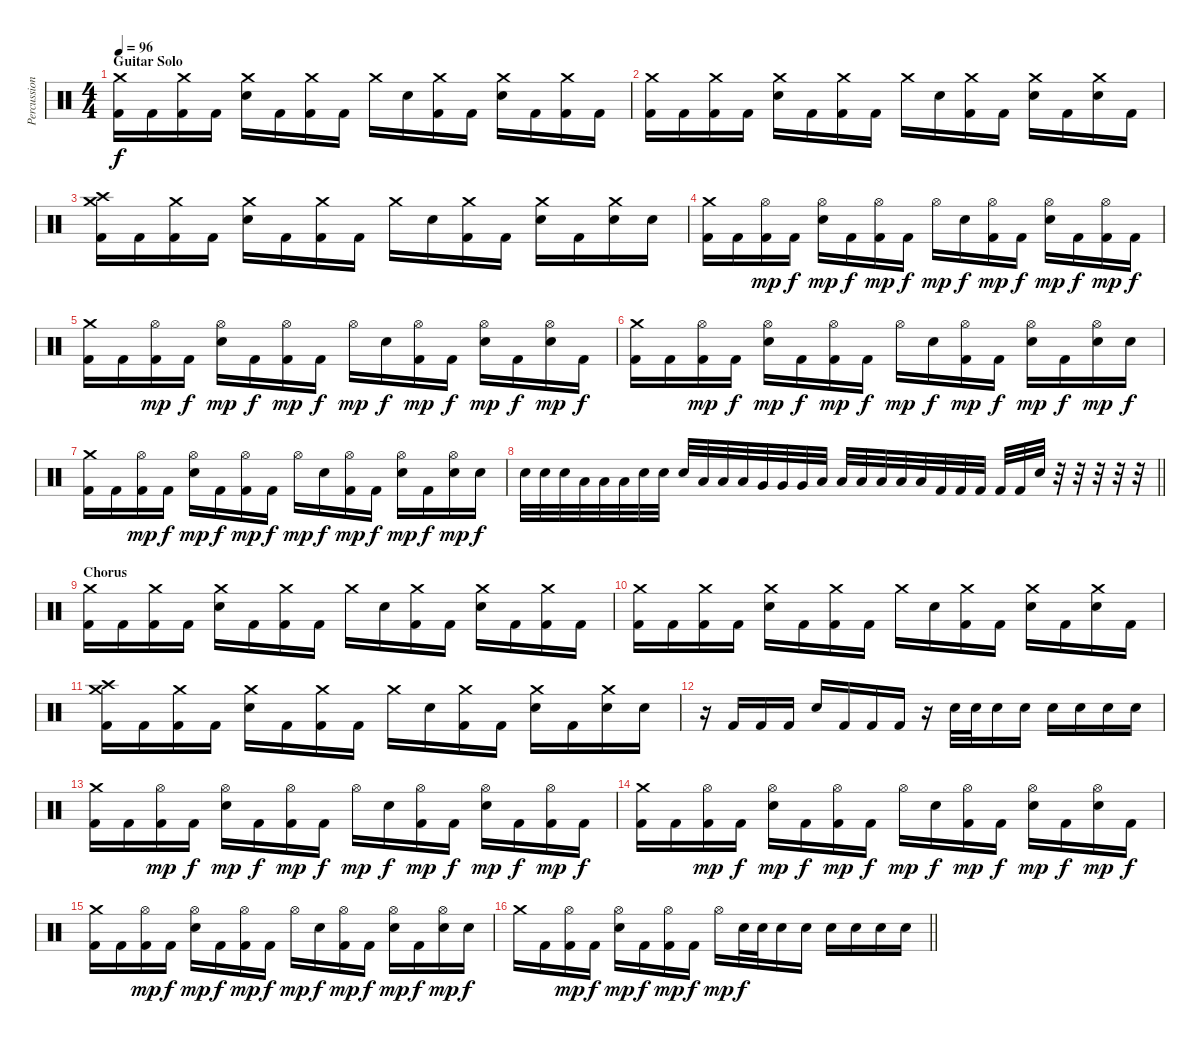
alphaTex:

\track ("Percussion" "Percussion") {instrument percussion}
\staff {score}
\articulation defaults
\ts (4 4)
\section ("" "Guitar Solo")
\tempo 96
\clef neutral
\ks c
("Crash medium (hit)" "Kick (hit) 2").16{dy f} "Kick (hit) 2".16 ("Crash medium (hit)" "Kick (hit) 2").16 "Kick (hit) 2".16 ("Crash medium (hit)" "Electric Snare (hit)").16 "Kick (hit) 2".16 ("Crash medium (hit)" "Kick (hit) 2").16 "Kick (hit) 2".16 "Crash medium (hit)".16 "Electric Snare (hit)".16 ("Crash medium (hit)" "Kick (hit) 2").16 "Kick (hit) 2".16 ("Crash medium (hit)" "Electric Snare (hit)").16 "Kick (hit) 2".16 ("Crash medium (hit)" "Kick (hit) 2").16 "Kick (hit) 2".16 |
("Crash medium (hit)" "Kick (hit) 2").16 "Kick (hit) 2".16 ("Crash medium (hit)" "Kick (hit) 2").16 "Kick (hit) 2".16 ("Crash medium (hit)" "Electric Snare (hit)").16 "Kick (hit) 2".16 ("Crash medium (hit)" "Kick (hit) 2").16 "Kick (hit) 2".16 "Crash medium (hit)".16 "Electric Snare (hit)".16 ("Crash medium (hit)" "Kick (hit) 2").16 "Kick (hit) 2".16 ("Crash medium (hit)" "Electric Snare (hit)").16 "Kick (hit) 2".16 ("Crash medium (hit)" "Electric Snare (hit)").16 "Kick (hit) 2".16 |
("Crash high (hit)" "Crash medium (hit)" "Kick (hit) 2").16 "Kick (hit) 2".16 ("Crash medium (hit)" "Kick (hit) 2").16 "Kick (hit) 2".16 ("Crash medium (hit)" "Electric Snare (hit)").16 "Kick (hit) 2".16 ("Crash medium (hit)" "Kick (hit) 2").16 "Kick (hit) 2".16 "Crash medium (hit)".16 "Electric Snare (hit)".16 ("Crash medium (hit)" "Kick (hit) 2").16 "Kick (hit) 2".16 ("Crash medium (hit)" "Electric Snare (hit)").16 "Kick (hit) 2".16 ("Crash medium (hit)" "Electric Snare (hit)").16 "Electric Snare (hit)".16 |
("Crash medium (hit)" "Kick (hit) 2").16 "Kick (hit) 2".16 ("Hi-Hat (open)" "Kick (hit) 2").16{dy mp} "Kick (hit) 2".16{dy f} ("Hi-Hat (open)" "Electric Snare (hit)").16{dy mp} "Kick (hit) 2".16{dy f} ("Hi-Hat (open)" "Kick (hit) 2").16{dy mp} "Kick (hit) 2".16{dy f} "Hi-Hat (open)".16{dy mp} "Electric Snare (hit)".16{dy f} ("Hi-Hat (open)" "Kick (hit) 2").16{dy mp} "Kick (hit) 2".16{dy f} ("Hi-Hat (open)" "Electric Snare (hit)").16{dy mp} "Kick (hit) 2".16{dy f} ("Hi-Hat (open)" "Kick (hit) 2").16{dy mp} "Kick (hit) 2".16{dy f} |
("Crash medium (hit)" "Kick (hit) 2").16 "Kick (hit) 2".16 ("Hi-Hat (open)" "Kick (hit) 2").16{dy mp} "Kick (hit) 2".16{dy f} ("Hi-Hat (open)" "Electric Snare (hit)").16{dy mp} "Kick (hit) 2".16{dy f} ("Hi-Hat (open)" "Kick (hit) 2").16{dy mp} "Kick (hit) 2".16{dy f} "Hi-Hat (open)".16{dy mp} "Electric Snare (hit)".16{dy f} ("Hi-Hat (open)" "Kick (hit) 2").16{dy mp} "Kick (hit) 2".16{dy f} ("Hi-Hat (open)" "Electric Snare (hit)").16{dy mp} "Kick (hit) 2".16{dy f} ("Hi-Hat (open)" "Electric Snare (hit)").16{dy mp} "Kick (hit) 2".16{dy f} |
("Crash medium (hit)" "Kick (hit) 2").16 "Kick (hit) 2".16 ("Hi-Hat (open)" "Kick (hit) 2").16{dy mp} "Kick (hit) 2".16{dy f} ("Hi-Hat (open)" "Electric Snare (hit)").16{dy mp} "Kick (hit) 2".16{dy f} ("Hi-Hat (open)" "Kick (hit) 2").16{dy mp} "Kick (hit) 2".16{dy f} "Hi-Hat (open)".16{dy mp} "Electric Snare (hit)".16{dy f} ("Hi-Hat (open)" "Kick (hit) 2").16{dy mp} "Kick (hit) 2".16{dy f} ("Hi-Hat (open)" "Electric Snare (hit)").16{dy mp} "Kick (hit) 2".16{dy f} ("Hi-Hat (open)" "Electric Snare (hit)").16{dy mp} "Electric Snare (hit)".16{dy f} |
("Crash medium (hit)" "Kick (hit) 2").16 "Kick (hit) 2".16 ("Hi-Hat (open)" "Kick (hit) 2").16{dy mp} "Kick (hit) 2".16{dy f} ("Hi-Hat (open)" "Electric Snare (hit)").16{dy mp} "Kick (hit) 2".16{dy f} ("Hi-Hat (open)" "Kick (hit) 2").16{dy mp} "Kick (hit) 2".16{dy f} "Hi-Hat (open)".16{dy mp} "Electric Snare (hit)".16{dy f} ("Hi-Hat (open)" "Kick (hit) 2").16{dy mp} "Kick (hit) 2".16{dy f} ("Hi-Hat (open)" "Electric Snare (hit)").16{dy mp} "Kick (hit) 2".16{dy f} ("Hi-Hat (open)" "Electric Snare (hit)").16{dy mp} "Electric Snare (hit)".16{dy f} |
\barLineRight lightlight "Electric Snare (hit)".32 "Electric Snare (hit)".32 "Electric Snare (hit)".32 "Low Tom (hit)".32 "Low Tom (hit)".32 "Low Tom (hit)".32 "Electric Snare (hit)".32 "Electric Snare (hit)".32 "Electric Snare (hit)".32 "Low Tom (hit)".32 "Low Tom (hit)".32 "Low Tom (hit)".32 "Very Low Tom (hit)".32 "Very Low Tom (hit)".32 "Very Low Tom (hit)".32 "Low Floor Tom (hit)".32 "Low Floor Tom (hit)".32 "Low Floor Tom (hit)".32 "Low Floor Tom (hit)".32 "Low Floor Tom (hit)".32 "Low Floor Tom (hit)".32 "Kick (hit) 2".32 "Kick (hit) 2".32 "Kick (hit) 2".32 "Kick (hit) 2".32 "Kick (hit) 2".32 "Electric Snare (hit)".32
r.32 r.32 r.32 r.32 r.32 |
\section ("" "Chorus")
("Crash medium (hit)" "Kick (hit) 2").16 "Kick (hit) 2".16 ("Crash medium (hit)" "Kick (hit) 2").16 "Kick (hit) 2".16 ("Crash medium (hit)" "Electric Snare (hit)").16 "Kick (hit) 2".16 ("Crash medium (hit)" "Kick (hit) 2").16 "Kick (hit) 2".16 "Crash medium (hit)".16 "Electric Snare (hit)".16 ("Crash medium (hit)" "Kick (hit) 2").16 "Kick (hit) 2".16 ("Crash medium (hit)" "Electric Snare (hit)").16 "Kick (hit) 2".16 ("Crash medium (hit)" "Kick (hit) 2").16 "Kick (hit) 2".16 |
("Crash medium (hit)" "Kick (hit) 2").16 "Kick (hit) 2".16 ("Crash medium (hit)" "Kick (hit) 2").16 "Kick (hit) 2".16 ("Crash medium (hit)" "Electric Snare (hit)").16 "Kick (hit) 2".16 ("Crash medium (hit)" "Kick (hit) 2").16 "Kick (hit) 2".16 "Crash medium (hit)".16 "Electric Snare (hit)".16 ("Crash medium (hit)" "Kick (hit) 2").16 "Kick (hit) 2".16 ("Crash medium (hit)" "Electric Snare (hit)").16 "Kick (hit) 2".16 ("Crash medium (hit)" "Electric Snare (hit)").16 "Kick (hit) 2".16 |
("Crash high (hit)" "Crash medium (hit)" "Kick (hit) 2").16 "Kick (hit) 2".16 ("Crash medium (hit)" "Kick (hit) 2").16 "Kick (hit) 2".16 ("Crash medium (hit)" "Electric Snare (hit)").16 "Kick (hit) 2".16 ("Crash medium (hit)" "Kick (hit) 2").16 "Kick (hit) 2".16 "Crash medium (hit)".16 "Electric Snare (hit)".16 ("Crash medium (hit)" "Kick (hit) 2").16 "Kick (hit) 2".16 ("Crash medium (hit)" "Electric Snare (hit)").16 "Kick (hit) 2".16 ("Crash medium (hit)" "Electric Snare (hit)").16 "Electric Snare (hit)".16 |
r.16 "Kick (hit) 2".16 "Kick (hit) 2".16 "Kick (hit) 2".16 "Electric Snare (hit)".16 "Kick (hit) 2".16 "Kick (hit) 2".16 "Kick (hit) 2".16 r.16 "Electric Snare (hit)".32 "Electric Snare (hit)".32 "Electric Snare (hit)".16 "Electric Snare (hit)".16 "Electric Snare (hit)".16 "Electric Snare (hit)".16 "Electric Snare (hit)".16 "Electric Snare (hit)".16 |
("Crash medium (hit)" "Kick (hit) 2").16 "Kick (hit) 2".16 ("Hi-Hat (open)" "Kick (hit) 2").16{dy mp} "Kick (hit) 2".16{dy f} ("Hi-Hat (open)" "Electric Snare (hit)").16{dy mp} "Kick (hit) 2".16{dy f} ("Hi-Hat (open)" "Kick (hit) 2").16{dy mp} "Kick (hit) 2".16{dy f} "Hi-Hat (open)".16{dy mp} "Electric Snare (hit)".16{dy f} ("Hi-Hat (open)" "Kick (hit) 2").16{dy mp} "Kick (hit) 2".16{dy f} ("Hi-Hat (open)" "Electric Snare (hit)").16{dy mp} "Kick (hit) 2".16{dy f} ("Hi-Hat (open)" "Kick (hit) 2").16{dy mp} "Kick (hit) 2".16{dy f} |
("Crash medium (hit)" "Kick (hit) 2").16 "Kick (hit) 2".16 ("Hi-Hat (open)" "Kick (hit) 2").16{dy mp} "Kick (hit) 2".16{dy f} ("Hi-Hat (open)" "Electric Snare (hit)").16{dy mp} "Kick (hit) 2".16{dy f} ("Hi-Hat (open)" "Kick (hit) 2").16{dy mp} "Kick (hit) 2".16{dy f} "Hi-Hat (open)".16{dy mp} "Electric Snare (hit)".16{dy f} ("Hi-Hat (open)" "Kick (hit) 2").16{dy mp} "Kick (hit) 2".16{dy f} ("Hi-Hat (open)" "Electric Snare (hit)").16{dy mp} "Kick (hit) 2".16{dy f} ("Hi-Hat (open)" "Electric Snare (hit)").16{dy mp} "Kick (hit) 2".16{dy f} |
("Crash medium (hit)" "Kick (hit) 2").16 "Kick (hit) 2".16 ("Hi-Hat (open)" "Kick (hit) 2").16{dy mp} "Kick (hit) 2".16{dy f} ("Hi-Hat (open)" "Electric Snare (hit)").16{dy mp} "Kick (hit) 2".16{dy f} ("Hi-Hat (open)" "Kick (hit) 2").16{dy mp} "Kick (hit) 2".16{dy f} "Hi-Hat (open)".16{dy mp} "Electric Snare (hit)".16{dy f} ("Hi-Hat (open)" "Kick (hit) 2").16{dy mp} "Kick (hit) 2".16{dy f} ("Hi-Hat (open)" "Electric Snare (hit)").16{dy mp} "Kick (hit) 2".16{dy f} ("Hi-Hat (open)" "Electric Snare (hit)").16{dy mp} "Electric Snare (hit)".16{dy f} |
\barLineRight lightlight "Crash medium (hit)".16 "Kick (hit) 2".16
("Hi-Hat (open)" "Kick (hit) 2").16{dy mp} "Kick (hit) 2".16{dy f} ("Hi-Hat (open)" "Electric Snare (hit)").16{dy mp} "Kick (hit) 2".16{dy f} ("Hi-Hat (open)" "Kick (hit) 2").16{dy mp} "Kick (hit) 2".16{dy f} "Hi-Hat (open)".16{dy mp} "Electric Snare (hit)".32{dy f} "Electric Snare (hit)".32 "Electric Snare (hit)".16 "Electric Snare (hit)".16 "Electric Snare (hit)".16 "Electric Snare (hit)".16 "Electric Snare (hit)".16 "Electric Snare (hit)".16
